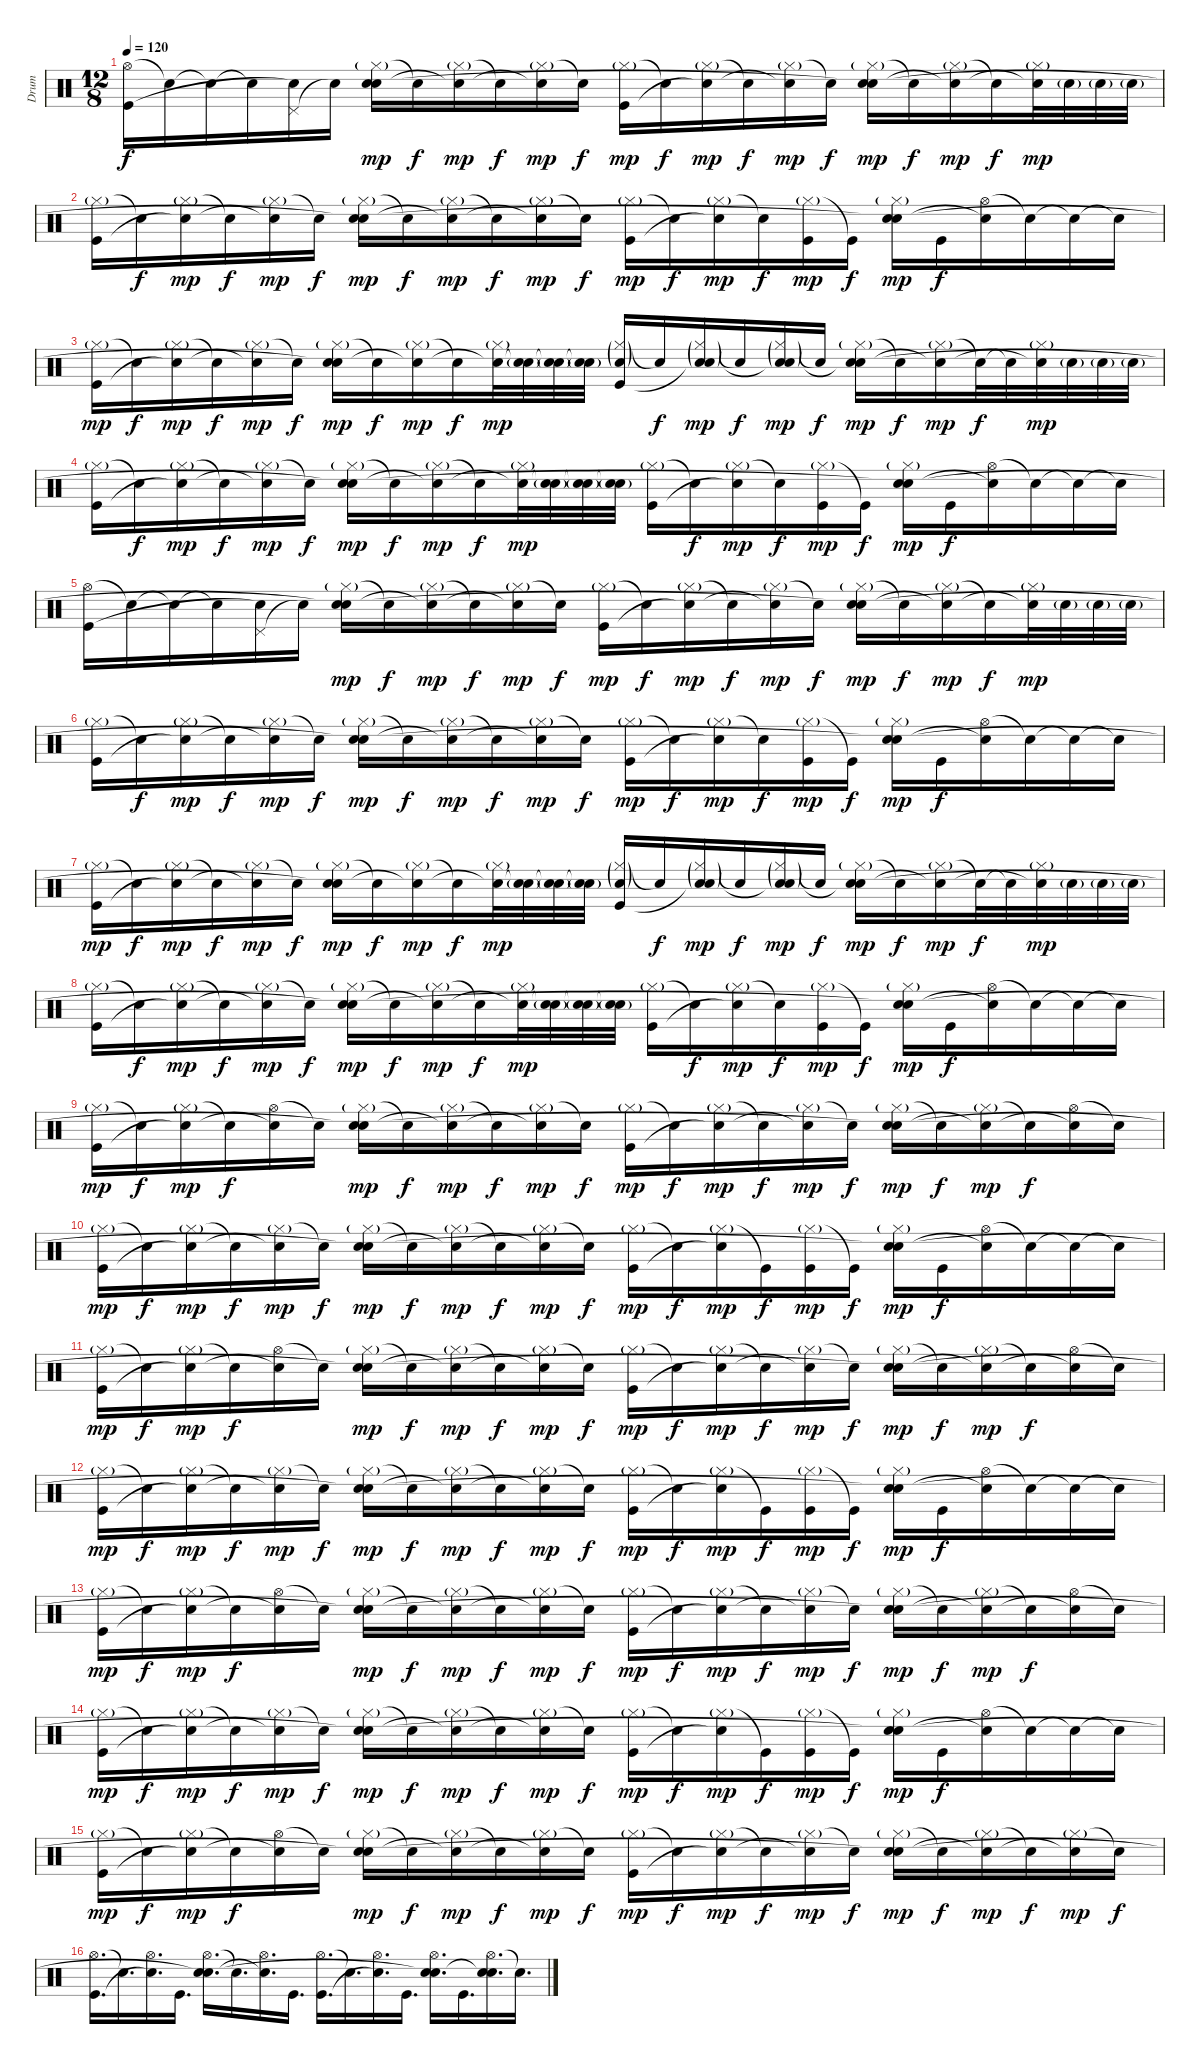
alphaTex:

\track ("Drum" "Drum") {instrument percussion}
\staff {score}
\articulation defaults
\ts (12 8)
\tempo 120
\clef neutral
\ks c
("Hi-Hat (open)" "Kick (hit)").16{dy f} "Snare (hit)"{t}.16 "Snare (hit)"{t}.16 "Snare (hit)"{t}.16 ("Pedal Hi-Hat (hit)" "Snare (hit)"{t}).16 "Snare (hit)"{t}.16 ("Hi-Hat (closed)"{g} "Electric Snare (hit)" "Snare (hit)"{t}).16{dy mp} "Snare (hit)"{t}.16{dy f} ("Hi-Hat (closed)"{g} "Snare (hit)"{t}).16{dy mp} "Snare (hit)"{t}.16{dy f} ("Hi-Hat (closed)"{g} "Snare (hit)"{t}).16{dy mp} "Snare (hit)"{t}.16{dy f} ("Hi-Hat (closed)"{g} "Kick (hit)").16{dy mp} "Snare (hit)"{t}.16{dy f} ("Hi-Hat (closed)"{g} "Snare (hit)"{t}).16{dy mp} "Snare (hit)"{t}.16{dy f} ("Hi-Hat (closed)"{g} "Snare (hit)"{t}).16{dy mp} "Snare (hit)"{t}.16{dy f} ("Hi-Hat (closed)"{g} "Electric Snare (hit)" "Snare (hit)"{t}).16{dy mp} "Snare (hit)"{t}.16{dy f} ("Hi-Hat (closed)"{g} "Snare (hit)"{t}).16{dy mp} "Snare (hit)"{t}.16{dy f} ("Hi-Hat (closed)"{g} "Snare (hit)"{t}).32{dy mp} "Electric Snare (hit)"{g}.32 "Electric Snare (hit)"{g}.32 "Electric Snare (hit)"{g}.32 |
("Hi-Hat (closed)"{g} "Kick (hit)").16 "Snare (hit)"{t}.16{dy f} ("Hi-Hat (closed)"{g} "Snare (hit)"{t}).16{dy mp} "Snare (hit)"{t}.16{dy f} ("Hi-Hat (closed)"{g} "Snare (hit)"{t}).16{dy mp} "Snare (hit)"{t}.16{dy f} ("Hi-Hat (closed)"{g} "Electric Snare (hit)" "Snare (hit)"{t}).16{dy mp} "Snare (hit)"{t}.16{dy f} ("Hi-Hat (closed)"{g} "Snare (hit)"{t}).16{dy mp} "Snare (hit)"{t}.16{dy f} ("Hi-Hat (closed)"{g} "Snare (hit)"{t}).16{dy mp} "Snare (hit)"{t}.16{dy f} ("Hi-Hat (closed)"{g} "Kick (hit)").16{dy mp} "Snare (hit)"{t}.16{dy f} ("Hi-Hat (closed)"{g} "Snare (hit)"{t}).16{dy mp} "Snare (hit)"{t}.16{dy f} ("Hi-Hat (closed)"{g} "Kick (hit)").16{dy mp} "Kick (hit)"{t}.16{dy f} ("Hi-Hat (closed)"{g} "Electric Snare (hit)" "Snare (hit)"{t}).16{dy mp} "Kick (hit)".16{dy f} ("Hi-Hat (open)" "Snare (hit)"{t}).16 "Snare (hit)"{t}.16 "Snare (hit)"{t}.16 "Snare (hit)"{t}.16 |
("Hi-Hat (closed)"{g} "Kick (hit)").16{dy mp} "Snare (hit)"{t}.16{dy f} ("Hi-Hat (closed)"{g} "Snare (hit)"{t}).16{dy mp} "Snare (hit)"{t}.16{dy f} ("Hi-Hat (closed)"{g} "Snare (hit)"{t}).16{dy mp} "Snare (hit)"{t}.16{dy f} ("Hi-Hat (closed)"{g} "Electric Snare (hit)" "Snare (hit)"{t}).16{dy mp} "Snare (hit)"{t}.16{dy f} ("Hi-Hat (closed)"{g} "Snare (hit)"{t}).16{dy mp} "Snare (hit)"{t}.16{dy f} ("Hi-Hat (closed)"{g} "Snare (hit)"{t}).32{dy mp} ("Electric Snare (hit)"{g} "Snare (hit)"{t}).32 ("Electric Snare (hit)"{g} "Snare (hit)"{t}).32 ("Electric Snare (hit)"{g} "Snare (hit)"{t}).32 ("Hi-Hat (closed)"{g} "Electric Snare (hit)"{g} "Kick (hit)").16 "Snare (hit)"{t}.16{dy f} ("Hi-Hat (closed)"{g} "Electric Snare (hit)"{g} "Snare (hit)"{t}).16{dy mp} "Snare (hit)"{t}.16{dy f} ("Hi-Hat (closed)"{g} "Electric Snare (hit)"{g} "Snare (hit)"{t}).16{dy mp} "Snare (hit)"{t}.16{dy f} ("Hi-Hat (closed)"{g} "Electric Snare (hit)" "Snare (hit)"{t}).16{dy mp} "Snare (hit)"{t}.16{dy f} ("Hi-Hat (closed)"{g} "Snare (hit)"{t}).16{dy mp} "Snare (hit)"{t}.32{dy f} "Snare (hit)"{t}.32 ("Hi-Hat (closed)"{g} "Snare (hit)"{t}).32{dy mp} "Electric Snare (hit)"{g}.32 "Electric Snare (hit)"{g}.32 "Electric Snare (hit)"{g}.32 |
("Hi-Hat (closed)"{g} "Kick (hit)").16 "Snare (hit)"{t}.16{dy f} ("Hi-Hat (closed)"{g} "Snare (hit)"{t}).16{dy mp} "Snare (hit)"{t}.16{dy f} ("Hi-Hat (closed)"{g} "Snare (hit)"{t}).16{dy mp} "Snare (hit)"{t}.16{dy f} ("Hi-Hat (closed)"{g} "Electric Snare (hit)" "Snare (hit)"{t}).16{dy mp} "Snare (hit)"{t}.16{dy f} ("Hi-Hat (closed)"{g} "Snare (hit)"{t}).16{dy mp} "Snare (hit)"{t}.16{dy f} ("Hi-Hat (closed)"{g} "Snare (hit)"{t}).32{dy mp} ("Electric Snare (hit)"{g} "Snare (hit)"{t}).32 ("Electric Snare (hit)"{g} "Snare (hit)"{t}).32 ("Electric Snare (hit)"{g} "Snare (hit)"{t}).32 ("Hi-Hat (closed)"{g} "Kick (hit)").16 "Snare (hit)"{t}.16{dy f} ("Hi-Hat (closed)"{g} "Snare (hit)"{t}).16{dy mp} "Snare (hit)"{t}.16{dy f} ("Hi-Hat (closed)"{g} "Kick (hit)").16{dy mp} "Kick (hit)"{t}.16{dy f} ("Hi-Hat (closed)"{g} "Electric Snare (hit)" "Snare (hit)"{t}).16{dy mp} "Kick (hit)".16{dy f} ("Hi-Hat (open)" "Snare (hit)"{t}).16 "Snare (hit)"{t}.16 "Snare (hit)"{t}.16 "Snare (hit)"{t}.16 |
("Hi-Hat (open)" "Kick (hit)").16 "Snare (hit)"{t}.16 "Snare (hit)"{t}.16 "Snare (hit)"{t}.16 ("Pedal Hi-Hat (hit)" "Snare (hit)"{t}).16 "Snare (hit)"{t}.16 ("Hi-Hat (closed)"{g} "Electric Snare (hit)" "Snare (hit)"{t}).16{dy mp} "Snare (hit)"{t}.16{dy f} ("Hi-Hat (closed)"{g} "Snare (hit)"{t}).16{dy mp} "Snare (hit)"{t}.16{dy f} ("Hi-Hat (closed)"{g} "Snare (hit)"{t}).16{dy mp} "Snare (hit)"{t}.16{dy f} ("Hi-Hat (closed)"{g} "Kick (hit)").16{dy mp} "Snare (hit)"{t}.16{dy f} ("Hi-Hat (closed)"{g} "Snare (hit)"{t}).16{dy mp} "Snare (hit)"{t}.16{dy f} ("Hi-Hat (closed)"{g} "Snare (hit)"{t}).16{dy mp} "Snare (hit)"{t}.16{dy f} ("Hi-Hat (closed)"{g} "Electric Snare (hit)" "Snare (hit)"{t}).16{dy mp} "Snare (hit)"{t}.16{dy f} ("Hi-Hat (closed)"{g} "Snare (hit)"{t}).16{dy mp} "Snare (hit)"{t}.16{dy f} ("Hi-Hat (closed)"{g} "Snare (hit)"{t}).32{dy mp} "Electric Snare (hit)"{g}.32 "Electric Snare (hit)"{g}.32 "Electric Snare (hit)"{g}.32 |
("Hi-Hat (closed)"{g} "Kick (hit)").16 "Snare (hit)"{t}.16{dy f} ("Hi-Hat (closed)"{g} "Snare (hit)"{t}).16{dy mp} "Snare (hit)"{t}.16{dy f} ("Hi-Hat (closed)"{g} "Snare (hit)"{t}).16{dy mp} "Snare (hit)"{t}.16{dy f} ("Hi-Hat (closed)"{g} "Electric Snare (hit)" "Snare (hit)"{t}).16{dy mp} "Snare (hit)"{t}.16{dy f} ("Hi-Hat (closed)"{g} "Snare (hit)"{t}).16{dy mp} "Snare (hit)"{t}.16{dy f} ("Hi-Hat (closed)"{g} "Snare (hit)"{t}).16{dy mp} "Snare (hit)"{t}.16{dy f} ("Hi-Hat (closed)"{g} "Kick (hit)").16{dy mp} "Snare (hit)"{t}.16{dy f} ("Hi-Hat (closed)"{g} "Snare (hit)"{t}).16{dy mp} "Snare (hit)"{t}.16{dy f} ("Hi-Hat (closed)"{g} "Kick (hit)").16{dy mp} "Kick (hit)"{t}.16{dy f} ("Hi-Hat (closed)"{g} "Electric Snare (hit)" "Snare (hit)"{t}).16{dy mp} "Kick (hit)".16{dy f} ("Hi-Hat (open)" "Snare (hit)"{t}).16 "Snare (hit)"{t}.16 "Snare (hit)"{t}.16 "Snare (hit)"{t}.16 |
("Hi-Hat (closed)"{g} "Kick (hit)").16{dy mp} "Snare (hit)"{t}.16{dy f} ("Hi-Hat (closed)"{g} "Snare (hit)"{t}).16{dy mp} "Snare (hit)"{t}.16{dy f} ("Hi-Hat (closed)"{g} "Snare (hit)"{t}).16{dy mp} "Snare (hit)"{t}.16{dy f} ("Hi-Hat (closed)"{g} "Electric Snare (hit)" "Snare (hit)"{t}).16{dy mp} "Snare (hit)"{t}.16{dy f} ("Hi-Hat (closed)"{g} "Snare (hit)"{t}).16{dy mp} "Snare (hit)"{t}.16{dy f} ("Hi-Hat (closed)"{g} "Snare (hit)"{t}).32{dy mp} ("Electric Snare (hit)"{g} "Snare (hit)"{t}).32 ("Electric Snare (hit)"{g} "Snare (hit)"{t}).32 ("Electric Snare (hit)"{g} "Snare (hit)"{t}).32 ("Hi-Hat (closed)"{g} "Electric Snare (hit)"{g} "Kick (hit)").16 "Snare (hit)"{t}.16{dy f} ("Hi-Hat (closed)"{g} "Electric Snare (hit)"{g} "Snare (hit)"{t}).16{dy mp} "Snare (hit)"{t}.16{dy f} ("Hi-Hat (closed)"{g} "Electric Snare (hit)"{g} "Snare (hit)"{t}).16{dy mp} "Snare (hit)"{t}.16{dy f} ("Hi-Hat (closed)"{g} "Electric Snare (hit)" "Snare (hit)"{t}).16{dy mp} "Snare (hit)"{t}.16{dy f} ("Hi-Hat (closed)"{g} "Snare (hit)"{t}).16{dy mp} "Snare (hit)"{t}.32{dy f} "Snare (hit)"{t}.32 ("Hi-Hat (closed)"{g} "Snare (hit)"{t}).32{dy mp} "Electric Snare (hit)"{g}.32 "Electric Snare (hit)"{g}.32 "Electric Snare (hit)"{g}.32 |
("Hi-Hat (closed)"{g} "Kick (hit)").16 "Snare (hit)"{t}.16{dy f} ("Hi-Hat (closed)"{g} "Snare (hit)"{t}).16{dy mp} "Snare (hit)"{t}.16{dy f} ("Hi-Hat (closed)"{g} "Snare (hit)"{t}).16{dy mp} "Snare (hit)"{t}.16{dy f} ("Hi-Hat (closed)"{g} "Electric Snare (hit)" "Snare (hit)"{t}).16{dy mp} "Snare (hit)"{t}.16{dy f} ("Hi-Hat (closed)"{g} "Snare (hit)"{t}).16{dy mp} "Snare (hit)"{t}.16{dy f} ("Hi-Hat (closed)"{g} "Snare (hit)"{t}).32{dy mp} ("Electric Snare (hit)"{g} "Snare (hit)"{t}).32 ("Electric Snare (hit)"{g} "Snare (hit)"{t}).32 ("Electric Snare (hit)"{g} "Snare (hit)"{t}).32 ("Hi-Hat (closed)"{g} "Kick (hit)").16 "Snare (hit)"{t}.16{dy f} ("Hi-Hat (closed)"{g} "Snare (hit)"{t}).16{dy mp} "Snare (hit)"{t}.16{dy f} ("Hi-Hat (closed)"{g} "Kick (hit)").16{dy mp} "Kick (hit)"{t}.16{dy f} ("Hi-Hat (closed)"{g} "Electric Snare (hit)" "Snare (hit)"{t}).16{dy mp} "Kick (hit)".16{dy f} ("Hi-Hat (open)" "Snare (hit)"{t}).16 "Snare (hit)"{t}.16 "Snare (hit)"{t}.16 "Snare (hit)"{t}.16 |
("Hi-Hat (closed)"{g} "Kick (hit)").16{dy mp} "Snare (hit)"{t}.16{dy f} ("Hi-Hat (closed)"{g} "Snare (hit)"{t}).16{dy mp} "Snare (hit)"{t}.16{dy f} ("Hi-Hat (open)" "Snare (hit)"{t}).16 "Snare (hit)"{t}.16 ("Hi-Hat (closed)"{g} "Electric Snare (hit)" "Snare (hit)"{t}).16{dy mp} "Snare (hit)"{t}.16{dy f} ("Hi-Hat (closed)"{g} "Snare (hit)"{t}).16{dy mp} "Snare (hit)"{t}.16{dy f} ("Hi-Hat (closed)"{g} "Snare (hit)"{t}).16{dy mp} "Snare (hit)"{t}.16{dy f} ("Hi-Hat (closed)"{g} "Kick (hit)").16{dy mp} "Snare (hit)"{t}.16{dy f} ("Hi-Hat (closed)"{g} "Snare (hit)"{t}).16{dy mp} "Snare (hit)"{t}.16{dy f} ("Hi-Hat (closed)"{g} "Snare (hit)"{t}).16{dy mp} "Snare (hit)"{t}.16{dy f} ("Hi-Hat (closed)"{g} "Electric Snare (hit)" "Snare (hit)"{t}).16{dy mp} "Snare (hit)"{t}.16{dy f} ("Hi-Hat (closed)"{g} "Snare (hit)"{t}).16{dy mp} "Snare (hit)"{t}.16{dy f} ("Hi-Hat (open)" "Snare (hit)"{t}).16 "Snare (hit)"{t}.16 |
("Hi-Hat (closed)"{g} "Kick (hit)").16{dy mp} "Snare (hit)"{t}.16{dy f} ("Hi-Hat (closed)"{g} "Snare (hit)"{t}).16{dy mp} "Snare (hit)"{t}.16{dy f} ("Hi-Hat (closed)"{g} "Snare (hit)"{t}).16{dy mp} "Snare (hit)"{t}.16{dy f} ("Hi-Hat (closed)"{g} "Electric Snare (hit)" "Snare (hit)"{t}).16{dy mp} "Snare (hit)"{t}.16{dy f} ("Hi-Hat (closed)"{g} "Snare (hit)"{t}).16{dy mp} "Snare (hit)"{t}.16{dy f} ("Hi-Hat (closed)"{g} "Snare (hit)"{t}).16{dy mp} "Snare (hit)"{t}.16{dy f} ("Hi-Hat (closed)"{g} "Kick (hit)").16{dy mp} "Snare (hit)"{t}.16{dy f} ("Hi-Hat (closed)"{g} "Snare (hit)"{t}).16{dy mp} "Kick (hit)"{t}.16{dy f} ("Hi-Hat (closed)"{g} "Kick (hit)").16{dy mp} "Kick (hit)"{t}.16{dy f} ("Hi-Hat (closed)"{g} "Electric Snare (hit)" "Snare (hit)"{t}).16{dy mp} "Kick (hit)".16{dy f} ("Hi-Hat (open)" "Snare (hit)"{t}).16 "Snare (hit)"{t}.16 "Snare (hit)"{t}.16 "Snare (hit)"{t}.16 |
("Hi-Hat (closed)"{g} "Kick (hit)").16{dy mp} "Snare (hit)"{t}.16{dy f} ("Hi-Hat (closed)"{g} "Snare (hit)"{t}).16{dy mp} "Snare (hit)"{t}.16{dy f} ("Hi-Hat (open)" "Snare (hit)"{t}).16 "Snare (hit)"{t}.16 ("Hi-Hat (closed)"{g} "Electric Snare (hit)" "Snare (hit)"{t}).16{dy mp} "Snare (hit)"{t}.16{dy f} ("Hi-Hat (closed)"{g} "Snare (hit)"{t}).16{dy mp} "Snare (hit)"{t}.16{dy f} ("Hi-Hat (closed)"{g} "Snare (hit)"{t}).16{dy mp} "Snare (hit)"{t}.16{dy f} ("Hi-Hat (closed)"{g} "Kick (hit)").16{dy mp} "Snare (hit)"{t}.16{dy f} ("Hi-Hat (closed)"{g} "Snare (hit)"{t}).16{dy mp} "Snare (hit)"{t}.16{dy f} ("Hi-Hat (closed)"{g} "Snare (hit)"{t}).16{dy mp} "Snare (hit)"{t}.16{dy f} ("Hi-Hat (closed)"{g} "Electric Snare (hit)" "Snare (hit)"{t}).16{dy mp} "Snare (hit)"{t}.16{dy f} ("Hi-Hat (closed)"{g} "Snare (hit)"{t}).16{dy mp} "Snare (hit)"{t}.16{dy f} ("Hi-Hat (open)" "Snare (hit)"{t}).16 "Snare (hit)"{t}.16 |
("Hi-Hat (closed)"{g} "Kick (hit)").16{dy mp} "Snare (hit)"{t}.16{dy f} ("Hi-Hat (closed)"{g} "Snare (hit)"{t}).16{dy mp} "Snare (hit)"{t}.16{dy f} ("Hi-Hat (closed)"{g} "Snare (hit)"{t}).16{dy mp} "Snare (hit)"{t}.16{dy f} ("Hi-Hat (closed)"{g} "Electric Snare (hit)" "Snare (hit)"{t}).16{dy mp} "Snare (hit)"{t}.16{dy f} ("Hi-Hat (closed)"{g} "Snare (hit)"{t}).16{dy mp} "Snare (hit)"{t}.16{dy f} ("Hi-Hat (closed)"{g} "Snare (hit)"{t}).16{dy mp} "Snare (hit)"{t}.16{dy f} ("Hi-Hat (closed)"{g} "Kick (hit)").16{dy mp} "Snare (hit)"{t}.16{dy f} ("Hi-Hat (closed)"{g} "Snare (hit)"{t}).16{dy mp} "Kick (hit)"{t}.16{dy f} ("Hi-Hat (closed)"{g} "Kick (hit)").16{dy mp} "Kick (hit)"{t}.16{dy f} ("Hi-Hat (closed)"{g} "Electric Snare (hit)" "Snare (hit)"{t}).16{dy mp} "Kick (hit)".16{dy f} ("Hi-Hat (open)" "Snare (hit)"{t}).16 "Snare (hit)"{t}.16 "Snare (hit)"{t}.16 "Snare (hit)"{t}.16 |
("Hi-Hat (closed)"{g} "Kick (hit)").16{dy mp} "Snare (hit)"{t}.16{dy f} ("Hi-Hat (closed)"{g} "Snare (hit)"{t}).16{dy mp} "Snare (hit)"{t}.16{dy f} ("Hi-Hat (open)" "Snare (hit)"{t}).16 "Snare (hit)"{t}.16 ("Hi-Hat (closed)"{g} "Electric Snare (hit)" "Snare (hit)"{t}).16{dy mp} "Snare (hit)"{t}.16{dy f} ("Hi-Hat (closed)"{g} "Snare (hit)"{t}).16{dy mp} "Snare (hit)"{t}.16{dy f} ("Hi-Hat (closed)"{g} "Snare (hit)"{t}).16{dy mp} "Snare (hit)"{t}.16{dy f} ("Hi-Hat (closed)"{g} "Kick (hit)").16{dy mp} "Snare (hit)"{t}.16{dy f} ("Hi-Hat (closed)"{g} "Snare (hit)"{t}).16{dy mp} "Snare (hit)"{t}.16{dy f} ("Hi-Hat (closed)"{g} "Snare (hit)"{t}).16{dy mp} "Snare (hit)"{t}.16{dy f} ("Hi-Hat (closed)"{g} "Electric Snare (hit)" "Snare (hit)"{t}).16{dy mp} "Snare (hit)"{t}.16{dy f} ("Hi-Hat (closed)"{g} "Snare (hit)"{t}).16{dy mp} "Snare (hit)"{t}.16{dy f} ("Hi-Hat (open)" "Snare (hit)"{t}).16 "Snare (hit)"{t}.16 |
("Hi-Hat (closed)"{g} "Kick (hit)").16{dy mp} "Snare (hit)"{t}.16{dy f} ("Hi-Hat (closed)"{g} "Snare (hit)"{t}).16{dy mp} "Snare (hit)"{t}.16{dy f} ("Hi-Hat (closed)"{g} "Snare (hit)"{t}).16{dy mp} "Snare (hit)"{t}.16{dy f} ("Hi-Hat (closed)"{g} "Electric Snare (hit)" "Snare (hit)"{t}).16{dy mp} "Snare (hit)"{t}.16{dy f} ("Hi-Hat (closed)"{g} "Snare (hit)"{t}).16{dy mp} "Snare (hit)"{t}.16{dy f} ("Hi-Hat (closed)"{g} "Snare (hit)"{t}).16{dy mp} "Snare (hit)"{t}.16{dy f} ("Hi-Hat (closed)"{g} "Kick (hit)").16{dy mp} "Snare (hit)"{t}.16{dy f} ("Hi-Hat (closed)"{g} "Snare (hit)"{t}).16{dy mp} "Kick (hit)"{t}.16{dy f} ("Hi-Hat (closed)"{g} "Kick (hit)").16{dy mp} "Kick (hit)"{t}.16{dy f} ("Hi-Hat (closed)"{g} "Electric Snare (hit)" "Snare (hit)"{t}).16{dy mp} "Kick (hit)".16{dy f} ("Hi-Hat (open)" "Snare (hit)"{t}).16 "Snare (hit)"{t}.16 "Snare (hit)"{t}.16 "Snare (hit)"{t}.16 |
("Hi-Hat (closed)"{g} "Kick (hit)").16{dy mp} "Snare (hit)"{t}.16{dy f} ("Hi-Hat (closed)"{g} "Snare (hit)"{t}).16{dy mp} "Snare (hit)"{t}.16{dy f} ("Hi-Hat (open)" "Snare (hit)"{t}).16 "Snare (hit)"{t}.16 ("Hi-Hat (closed)"{g} "Electric Snare (hit)" "Snare (hit)"{t}).16{dy mp} "Snare (hit)"{t}.16{dy f} ("Hi-Hat (closed)"{g} "Snare (hit)"{t}).16{dy mp} "Snare (hit)"{t}.16{dy f} ("Hi-Hat (closed)"{g} "Snare (hit)"{t}).16{dy mp} "Snare (hit)"{t}.16{dy f} ("Hi-Hat (closed)"{g} "Kick (hit)").16{dy mp} "Snare (hit)"{t}.16{dy f} ("Hi-Hat (closed)"{g} "Snare (hit)"{t}).16{dy mp} "Snare (hit)"{t}.16{dy f} ("Hi-Hat (closed)"{g} "Snare (hit)"{t}).16{dy mp} "Snare (hit)"{t}.16{dy f} ("Hi-Hat (closed)"{g} "Electric Snare (hit)" "Snare (hit)"{t}).16{dy mp} "Snare (hit)"{t}.16{dy f} ("Hi-Hat (closed)"{g} "Snare (hit)"{t}).16{dy mp} "Snare (hit)"{t}.16{dy f} ("Hi-Hat (closed)"{g} "Snare (hit)"{t}).16{dy mp} "Snare (hit)"{t}.16{dy f} |
("Hi-Hat (open)" "Kick (hit)").16{d} "Snare (hit)"{t}.16{d} ("Hi-Hat (open)" "Snare (hit)"{t}).16{d} "Kick (hit)".16{d} ("Hi-Hat (open)" "Electric Snare (hit)" "Snare (hit)"{t}).16{d} "Snare (hit)"{t}.16{d} ("Hi-Hat (open)" "Snare (hit)"{t}).16{d} "Kick (hit)".16{d} ("Hi-Hat (open)" "Kick (hit)").16{d} "Snare (hit)"{t}.16{d} ("Hi-Hat (open)" "Snare (hit)"{t}).16{d} "Kick (hit)".16{d} ("Hi-Hat (open)" "Electric Snare (hit)" "Snare (hit)"{t}).16{d} "Kick (hit)".16{d} ("Hi-Hat (open)" "Electric Snare (hit)" "Snare (hit)"{t}).16{d} "Snare (hit)"{t}.16{d}
